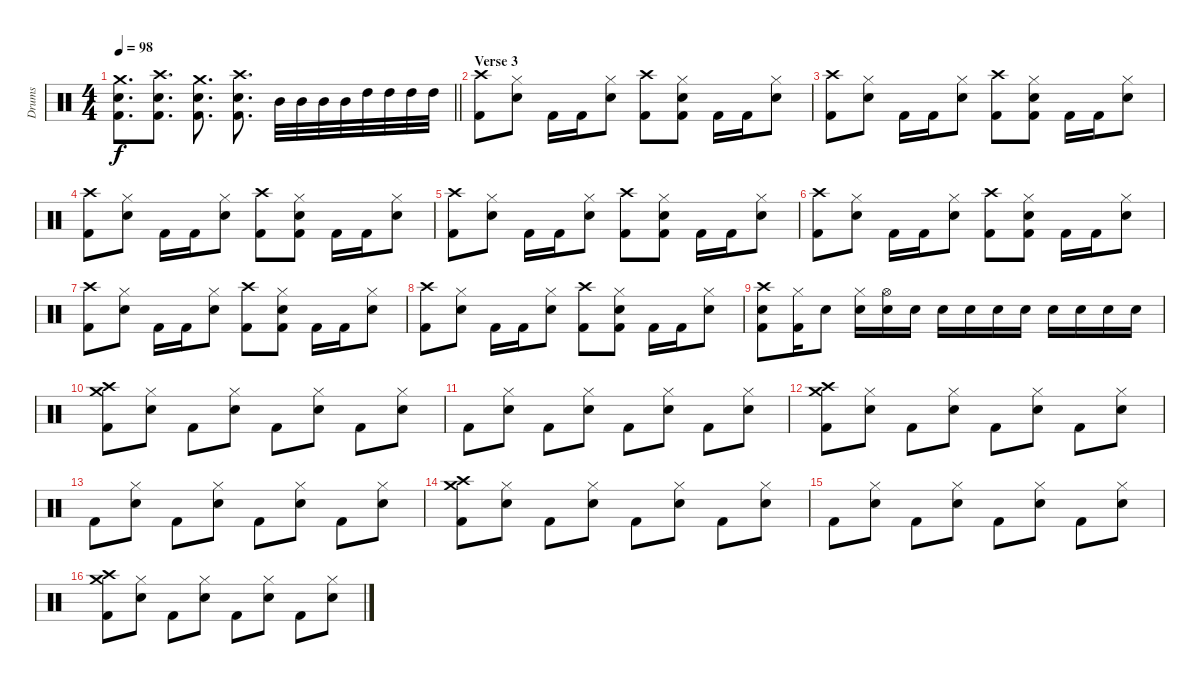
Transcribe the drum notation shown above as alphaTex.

\track ("Drums" "Drums") {instrument percussion}
\staff {score}
\articulation defaults
\ts (4 4)
\tempo 98
\clef neutral
\barLineRight lightlight
\ks c
("Crash medium (hit)" "Snare (hit) 2" "Kick (hit) 2").8{d dy f} ("Crash high (hit)" "Snare (hit) 2" "Kick (hit) 2").8{d} ("Crash medium (hit)" "Snare (hit) 2" "Kick (hit) 2").8{d} ("Crash high (hit)" "Snare (hit) 2" "Kick (hit) 2").8{d} "Mid Tom (hit)".32 "Mid Tom (hit)".32 "Mid Tom (hit)".32 "Mid Tom (hit)".32 "High Tom (hit)".32 "High Tom (hit)".32 "High Tom (hit)".32 "High Tom (hit)".32 |
\section ("" "Verse 3")
("Crash high (hit)" "Kick (hit) 2").8 ("Hi-Hat (closed)" "Snare (hit) 2").8 "Kick (hit) 2".16 "Kick (hit) 2".16 ("Hi-Hat (closed)" "Snare (hit) 2").8 ("Crash high (hit)" "Kick (hit) 2").8 ("Hi-Hat (closed)" "Snare (hit) 2" "Kick (hit) 2").8 "Kick (hit) 2".16 "Kick (hit) 2".16 ("Hi-Hat (closed)" "Snare (hit) 2").8 |
("Crash high (hit)" "Kick (hit) 2").8 ("Hi-Hat (closed)" "Snare (hit) 2").8 "Kick (hit) 2".16 "Kick (hit) 2".16 ("Hi-Hat (closed)" "Snare (hit) 2").8 ("Crash high (hit)" "Kick (hit) 2").8 ("Hi-Hat (closed)" "Snare (hit) 2" "Kick (hit) 2").8 "Kick (hit) 2".16 "Kick (hit) 2".16 ("Hi-Hat (closed)" "Snare (hit) 2").8 |
("Crash high (hit)" "Kick (hit) 2").8 ("Hi-Hat (closed)" "Snare (hit) 2").8 "Kick (hit) 2".16 "Kick (hit) 2".16 ("Hi-Hat (closed)" "Snare (hit) 2").8 ("Crash high (hit)" "Kick (hit) 2").8 ("Hi-Hat (closed)" "Snare (hit) 2" "Kick (hit) 2").8 "Kick (hit) 2".16 "Kick (hit) 2".16 ("Hi-Hat (closed)" "Snare (hit) 2").8 |
("Crash high (hit)" "Kick (hit) 2").8 ("Hi-Hat (closed)" "Snare (hit) 2").8 "Kick (hit) 2".16 "Kick (hit) 2".16 ("Hi-Hat (closed)" "Snare (hit) 2").8 ("Crash high (hit)" "Kick (hit) 2").8 ("Hi-Hat (closed)" "Snare (hit) 2" "Kick (hit) 2").8 "Kick (hit) 2".16 "Kick (hit) 2".16 ("Hi-Hat (closed)" "Snare (hit) 2").8 |
("Crash high (hit)" "Kick (hit) 2").8 ("Hi-Hat (closed)" "Snare (hit) 2").8 "Kick (hit) 2".16 "Kick (hit) 2".16 ("Hi-Hat (closed)" "Snare (hit) 2").8 ("Crash high (hit)" "Kick (hit) 2").8 ("Hi-Hat (closed)" "Snare (hit) 2" "Kick (hit) 2").8 "Kick (hit) 2".16 "Kick (hit) 2".16 ("Hi-Hat (closed)" "Snare (hit) 2").8 |
("Crash high (hit)" "Kick (hit) 2").8 ("Hi-Hat (closed)" "Snare (hit) 2").8 "Kick (hit) 2".16 "Kick (hit) 2".16 ("Hi-Hat (closed)" "Snare (hit) 2").8 ("Crash high (hit)" "Kick (hit) 2").8 ("Hi-Hat (closed)" "Snare (hit) 2" "Kick (hit) 2").8 "Kick (hit) 2".16 "Kick (hit) 2".16 ("Hi-Hat (closed)" "Snare (hit) 2").8 |
("Crash high (hit)" "Kick (hit) 2").8 ("Hi-Hat (closed)" "Snare (hit) 2").8 "Kick (hit) 2".16 "Kick (hit) 2".16 ("Hi-Hat (closed)" "Snare (hit) 2").8 ("Crash high (hit)" "Kick (hit) 2").8 ("Hi-Hat (closed)" "Snare (hit) 2" "Kick (hit) 2").8 "Kick (hit) 2".16 "Kick (hit) 2".16 ("Hi-Hat (closed)" "Snare (hit) 2").8 |
("Crash high (hit)" "Snare (hit) 2" "Kick (hit) 2").8 ("Hi-Hat (closed)" "Kick (hit) 2").16 "Snare (hit) 2".8 ("Hi-Hat (closed)" "Snare (hit) 2").16 ("Hi-Hat (open)" "Snare (hit) 2").16 "Snare (hit) 2".16 "Snare (hit) 2".16 "Snare (hit) 2".16 "Snare (hit) 2".16 "Snare (hit) 2".16 "Snare (hit) 2".16 "Snare (hit) 2".16 "Snare (hit) 2".16 "Snare (hit) 2".16 |
("Crash medium (hit)" "Crash high (hit)" "Kick (hit) 2").8 ("Hi-Hat (closed)" "Snare (hit) 2").8 "Kick (hit) 2".8 ("Hi-Hat (closed)" "Snare (hit) 2").8 "Kick (hit) 2".8 ("Hi-Hat (closed)" "Snare (hit) 2").8 "Kick (hit) 2".8 ("Hi-Hat (closed)" "Snare (hit) 2").8 |
"Kick (hit) 2".8 ("Hi-Hat (closed)" "Snare (hit) 2").8 "Kick (hit) 2".8 ("Hi-Hat (closed)" "Snare (hit) 2").8 "Kick (hit) 2".8 ("Hi-Hat (closed)" "Snare (hit) 2").8 "Kick (hit) 2".8 ("Hi-Hat (closed)" "Snare (hit) 2").8 |
("Crash medium (hit)" "Crash high (hit)" "Kick (hit) 2").8 ("Hi-Hat (closed)" "Snare (hit) 2").8 "Kick (hit) 2".8 ("Hi-Hat (closed)" "Snare (hit) 2").8 "Kick (hit) 2".8 ("Hi-Hat (closed)" "Snare (hit) 2").8 "Kick (hit) 2".8 ("Hi-Hat (closed)" "Snare (hit) 2").8 |
"Kick (hit) 2".8 ("Hi-Hat (closed)" "Snare (hit) 2").8 "Kick (hit) 2".8 ("Hi-Hat (closed)" "Snare (hit) 2").8 "Kick (hit) 2".8 ("Hi-Hat (closed)" "Snare (hit) 2").8 "Kick (hit) 2".8 ("Hi-Hat (closed)" "Snare (hit) 2").8 |
("Crash medium (hit)" "Crash high (hit)" "Kick (hit) 2").8 ("Hi-Hat (closed)" "Snare (hit) 2").8 "Kick (hit) 2".8 ("Hi-Hat (closed)" "Snare (hit) 2").8 "Kick (hit) 2".8 ("Hi-Hat (closed)" "Snare (hit) 2").8 "Kick (hit) 2".8 ("Hi-Hat (closed)" "Snare (hit) 2").8 |
"Kick (hit) 2".8 ("Hi-Hat (closed)" "Snare (hit) 2").8 "Kick (hit) 2".8 ("Hi-Hat (closed)" "Snare (hit) 2").8 "Kick (hit) 2".8 ("Hi-Hat (closed)" "Snare (hit) 2").8 "Kick (hit) 2".8 ("Hi-Hat (closed)" "Snare (hit) 2").8 |
("Crash medium (hit)" "Crash high (hit)" "Kick (hit) 2").8 ("Hi-Hat (closed)" "Snare (hit) 2").8 "Kick (hit) 2".8 ("Hi-Hat (closed)" "Snare (hit) 2").8 "Kick (hit) 2".8 ("Hi-Hat (closed)" "Snare (hit) 2").8 "Kick (hit) 2".8 ("Hi-Hat (closed)" "Snare (hit) 2").8
